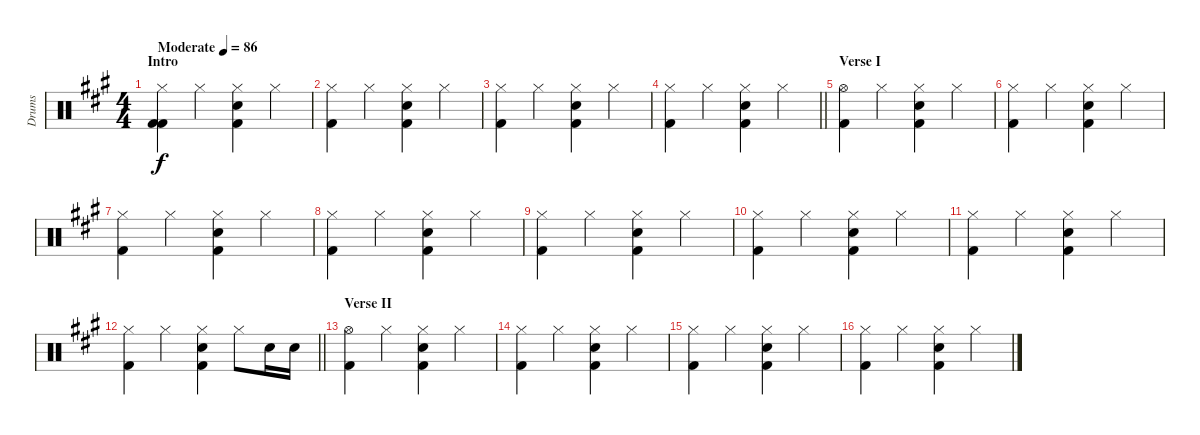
\track ("Drums" "Drums") {instrument percussion}
\staff {score}
\articulation defaults
\ts (4 4)
\section ("" "Intro")
\tempo (86 "Moderate")
\clef neutral
\ks a
("Hi-Hat (closed)" "Kick (hit) 2" "Kick (hit) 2").4{dy f} "Hi-Hat (closed)".4 ("Hi-Hat (closed)" "Electric Snare (hit)" "Kick (hit) 2").4 "Hi-Hat (closed)".4 |
("Hi-Hat (closed)" "Kick (hit) 2").4 "Hi-Hat (closed)".4 ("Hi-Hat (closed)" "Electric Snare (hit)" "Kick (hit) 2").4 "Hi-Hat (closed)".4 |
("Hi-Hat (closed)" "Kick (hit) 2").4 "Hi-Hat (closed)".4 ("Hi-Hat (closed)" "Electric Snare (hit)" "Kick (hit) 2").4 "Hi-Hat (closed)".4 |
\barLineRight lightlight
("Hi-Hat (closed)" "Kick (hit) 2").4 "Hi-Hat (closed)".4 ("Hi-Hat (closed)" "Electric Snare (hit)" "Kick (hit) 2").4 "Hi-Hat (closed)".4 |
\section ("" "Verse I")
("Hi-Hat (open)" "Kick (hit) 2").4 "Hi-Hat (closed)".4 ("Hi-Hat (closed)" "Electric Snare (hit)" "Kick (hit) 2").4 "Hi-Hat (closed)".4 |
("Hi-Hat (closed)" "Kick (hit) 2").4 "Hi-Hat (closed)".4 ("Hi-Hat (closed)" "Electric Snare (hit)" "Kick (hit) 2").4 "Hi-Hat (closed)".4 |
("Hi-Hat (closed)" "Kick (hit) 2").4 "Hi-Hat (closed)".4 ("Hi-Hat (closed)" "Electric Snare (hit)" "Kick (hit) 2").4 "Hi-Hat (closed)".4 |
("Hi-Hat (closed)" "Kick (hit) 2").4 "Hi-Hat (closed)".4 ("Hi-Hat (closed)" "Electric Snare (hit)" "Kick (hit) 2").4 "Hi-Hat (closed)".4 |
("Hi-Hat (closed)" "Kick (hit) 2").4 "Hi-Hat (closed)".4 ("Hi-Hat (closed)" "Electric Snare (hit)" "Kick (hit) 2").4 "Hi-Hat (closed)".4 |
("Hi-Hat (closed)" "Kick (hit) 2").4 "Hi-Hat (closed)".4 ("Hi-Hat (closed)" "Electric Snare (hit)" "Kick (hit) 2").4 "Hi-Hat (closed)".4 |
("Hi-Hat (closed)" "Kick (hit) 2").4 "Hi-Hat (closed)".4 ("Hi-Hat (closed)" "Electric Snare (hit)" "Kick (hit) 2").4 "Hi-Hat (closed)".4 |
\barLineRight lightlight
("Hi-Hat (closed)" "Kick (hit) 2").4 "Hi-Hat (closed)".4 ("Hi-Hat (closed)" "Electric Snare (hit)" "Kick (hit) 2").4 "Hi-Hat (closed)".8 "Electric Snare (hit)".16 "Electric Snare (hit)".16 |
\section ("" "Verse II")
("Hi-Hat (open)" "Kick (hit) 2").4 "Hi-Hat (closed)".4 ("Hi-Hat (closed)" "Electric Snare (hit)" "Kick (hit) 2").4 "Hi-Hat (closed)".4 |
("Hi-Hat (closed)" "Kick (hit) 2").4 "Hi-Hat (closed)".4 ("Hi-Hat (closed)" "Electric Snare (hit)" "Kick (hit) 2").4 "Hi-Hat (closed)".4 |
("Hi-Hat (closed)" "Kick (hit) 2").4 "Hi-Hat (closed)".4 ("Hi-Hat (closed)" "Electric Snare (hit)" "Kick (hit) 2").4 "Hi-Hat (closed)".4 |
("Hi-Hat (closed)" "Kick (hit) 2").4 "Hi-Hat (closed)".4 ("Hi-Hat (closed)" "Electric Snare (hit)" "Kick (hit) 2").4 "Hi-Hat (closed)".4
